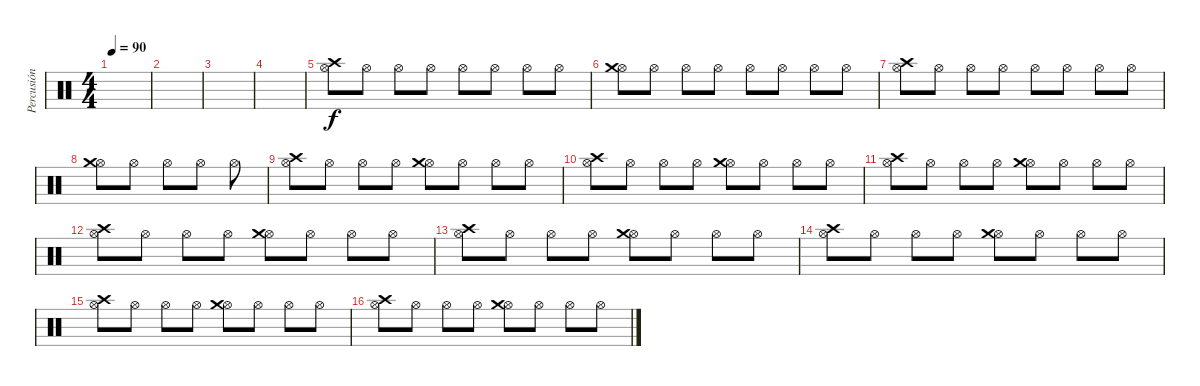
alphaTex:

\track ("Percusión" "Percusión") {instrument percussion}
\staff {score}
\articulation defaults
\ts (4 4)
\tempo 90
\clef neutral
\ks c
|
|
|
|
("Hi-Hat (open)" "Crash high (hit)").8 "Hi-Hat (open)".8 "Hi-Hat (open)".8 "Hi-Hat (open)".8 "Hi-Hat (open)".8 "Hi-Hat (open)".8 "Hi-Hat (open)".8 "Hi-Hat (open)".8 |
("Hi-Hat (open)" "Crash medium (hit)").8 "Hi-Hat (open)".8 "Hi-Hat (open)".8 "Hi-Hat (open)".8 "Hi-Hat (open)".8 "Hi-Hat (open)".8 "Hi-Hat (open)".8 "Hi-Hat (open)".8 |
("Hi-Hat (open)" "Crash high (hit)").8 "Hi-Hat (open)".8 "Hi-Hat (open)".8 "Hi-Hat (open)".8 "Hi-Hat (open)".8 "Hi-Hat (open)".8 "Hi-Hat (open)".8 "Hi-Hat (open)".8 |
("Hi-Hat (open)" "Crash medium (hit)").8 "Hi-Hat (open)".8 "Hi-Hat (open)".8 "Hi-Hat (open)".8 "Hi-Hat (open)".8 |
("Hi-Hat (open)" "Crash high (hit)").8 "Hi-Hat (open)".8 "Hi-Hat (open)".8 "Hi-Hat (open)".8 ("Hi-Hat (open)" "Crash medium (hit)").8 "Hi-Hat (open)".8 "Hi-Hat (open)".8 "Hi-Hat (open)".8 |
("Hi-Hat (open)" "Crash high (hit)").8 "Hi-Hat (open)".8 "Hi-Hat (open)".8 "Hi-Hat (open)".8 ("Hi-Hat (open)" "Crash medium (hit)").8 "Hi-Hat (open)".8 "Hi-Hat (open)".8 "Hi-Hat (open)".8 |
("Hi-Hat (open)" "Crash high (hit)").8 "Hi-Hat (open)".8 "Hi-Hat (open)".8 "Hi-Hat (open)".8 ("Hi-Hat (open)" "Crash medium (hit)").8 "Hi-Hat (open)".8 "Hi-Hat (open)".8 "Hi-Hat (open)".8 |
("Hi-Hat (open)" "Crash high (hit)").8 "Hi-Hat (open)".8 "Hi-Hat (open)".8 "Hi-Hat (open)".8 ("Hi-Hat (open)" "Crash medium (hit)").8 "Hi-Hat (open)".8 "Hi-Hat (open)".8 "Hi-Hat (open)".8 |
("Hi-Hat (open)" "Crash high (hit)").8 "Hi-Hat (open)".8 "Hi-Hat (open)".8 "Hi-Hat (open)".8 ("Hi-Hat (open)" "Crash medium (hit)").8 "Hi-Hat (open)".8 "Hi-Hat (open)".8 "Hi-Hat (open)".8 |
("Hi-Hat (open)" "Crash high (hit)").8 "Hi-Hat (open)".8 "Hi-Hat (open)".8 "Hi-Hat (open)".8 ("Hi-Hat (open)" "Crash medium (hit)").8 "Hi-Hat (open)".8 "Hi-Hat (open)".8 "Hi-Hat (open)".8 |
("Hi-Hat (open)" "Crash high (hit)").8 "Hi-Hat (open)".8 "Hi-Hat (open)".8 "Hi-Hat (open)".8 ("Hi-Hat (open)" "Crash medium (hit)").8 "Hi-Hat (open)".8 "Hi-Hat (open)".8 "Hi-Hat (open)".8 |
("Hi-Hat (open)" "Crash high (hit)").8 "Hi-Hat (open)".8 "Hi-Hat (open)".8 "Hi-Hat (open)".8 ("Hi-Hat (open)" "Crash medium (hit)").8 "Hi-Hat (open)".8 "Hi-Hat (open)".8 "Hi-Hat (open)".8
